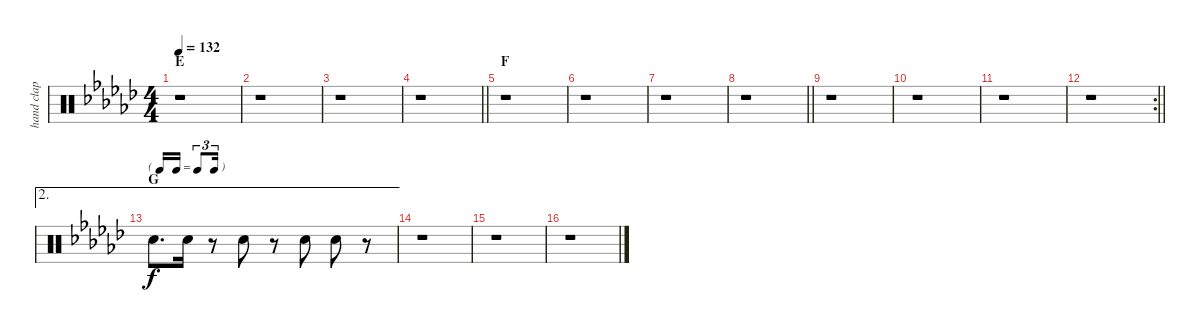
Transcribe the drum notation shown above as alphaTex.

\track ("hand clap" "hand clap") {instrument percussion}
\staff {score}
\articulation defaults
\ts (4 4)
\section ("" "E")
\tempo 132
\clef neutral
\ks gb
r.1{dy f} |
r.1 |
r.1 |
\barLineRight lightlight
r.1 |
\section ("" "F")
r.1 |
r.1 |
r.1 |
\barLineRight lightlight
r.1 |
r.1 |
r.1 |
r.1 |
\rc 2
\barLineRight lightlight
r.1 |
\ae 2
\tf triplet16th
\section ("" "G")
"Hand Clap (hit)".8{d} "Hand Clap (hit)".16 r.8 "Hand Clap (hit)".8 r.8 "Hand Clap (hit)".8 "Hand Clap (hit)".8 r.8 |
r.1 |
r.1 |
r.1
